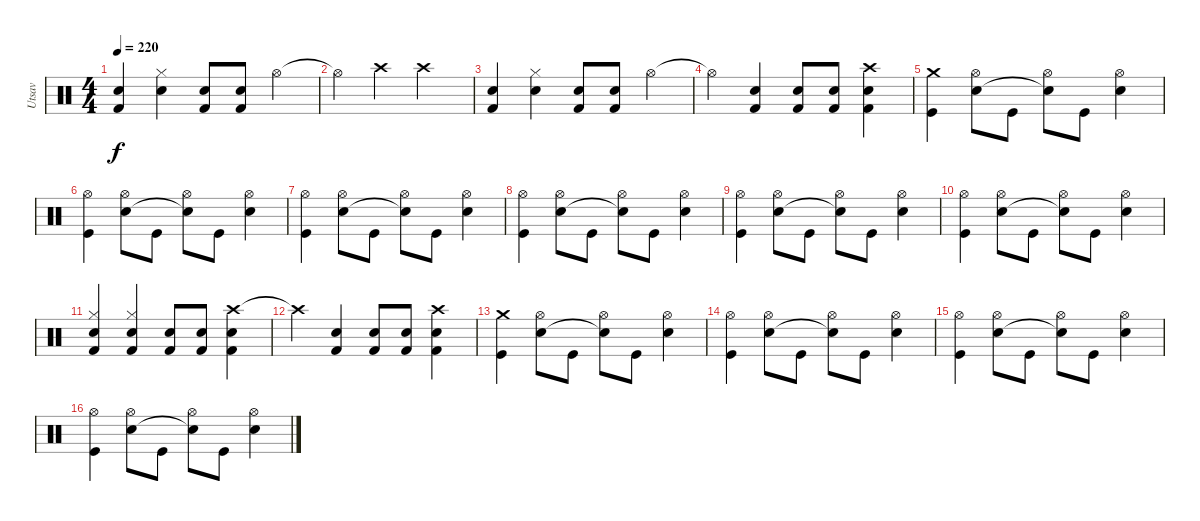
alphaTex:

\track ("Utsav" "Utsav") {instrument percussion}
\staff {score}
\articulation defaults
\ts (4 4)
\tempo 220
\clef neutral
\ks c
("Electric Snare (hit)" "Kick (hit) 2").4{dy f} ("Hi-Hat (closed)" "Snare (hit) 2").4 ("Electric Snare (hit)" "Kick (hit) 2").8 ("Electric Snare (hit)" "Kick (hit) 2").8 "Hi-Hat (open)".4 |
"Hi-Hat (open)"{t}.4 "Crash high (hit)".4 "Crash high (hit)".2 |
("Electric Snare (hit)" "Kick (hit) 2").4 ("Hi-Hat (closed)" "Snare (hit) 2").4 ("Electric Snare (hit)" "Kick (hit) 2").8 ("Electric Snare (hit)" "Kick (hit) 2").8 "Hi-Hat (open)".4 |
"Hi-Hat (open)"{t}.4 ("Snare (hit) 2" "Kick (hit) 2").4 ("Snare (hit) 2" "Kick (hit) 2").8 ("Snare (hit) 2" "Kick (hit) 2").8 ("Crash high (hit)" "Snare (hit) 2" "Kick (hit) 2").4 |
("Crash medium (hit)" "Kick (hit)").4 ("Hi-Hat (open)" "Electric Snare (hit)").8 "Kick (hit)".8 ("Hi-Hat (open)" "Snare (hit)"{t}).8 "Kick (hit)".8 ("Hi-Hat (open)" "Electric Snare (hit)").4 |
("Hi-Hat (open)" "Kick (hit)").4 ("Hi-Hat (open)" "Electric Snare (hit)").8 "Kick (hit)".8 ("Hi-Hat (open)" "Snare (hit)"{t}).8 "Kick (hit)".8 ("Hi-Hat (open)" "Electric Snare (hit)").4 |
("Hi-Hat (open)" "Kick (hit)").4 ("Hi-Hat (open)" "Electric Snare (hit)").8 "Kick (hit)".8 ("Hi-Hat (open)" "Snare (hit)"{t}).8 "Kick (hit)".8 ("Hi-Hat (open)" "Electric Snare (hit)").4 |
("Hi-Hat (open)" "Kick (hit)").4 ("Hi-Hat (open)" "Electric Snare (hit)").8 "Kick (hit)".8 ("Hi-Hat (open)" "Snare (hit)"{t}).8 "Kick (hit)".8 ("Hi-Hat (open)" "Electric Snare (hit)").4 |
("Hi-Hat (open)" "Kick (hit)").4 ("Hi-Hat (open)" "Electric Snare (hit)").8 "Kick (hit)".8 ("Hi-Hat (open)" "Snare (hit)"{t}).8 "Kick (hit)".8 ("Hi-Hat (open)" "Electric Snare (hit)").4 |
("Hi-Hat (open)" "Kick (hit)").4 ("Hi-Hat (open)" "Electric Snare (hit)").8 "Kick (hit)".8 ("Hi-Hat (open)" "Snare (hit)"{t}).8 "Kick (hit)".8 ("Hi-Hat (open)" "Electric Snare (hit)").4 |
("Snare (hit) 2" "Hi-Hat (closed)" "Kick (hit) 2").4 ("Snare (hit) 2" "Hi-Hat (closed)" "Kick (hit) 2").4 ("Snare (hit) 2" "Kick (hit) 2").8 ("Snare (hit) 2" "Kick (hit) 2").8 ("Crash high (hit)" "Snare (hit) 2" "Kick (hit) 2").4 |
"Crash high (hit)"{t}.4 ("Kick (hit) 2" "Snare (hit) 2").4 ("Kick (hit) 2" "Snare (hit) 2").8 ("Kick (hit) 2" "Snare (hit) 2").8 ("Crash high (hit)" "Kick (hit) 2" "Snare (hit) 2").4 |
("Crash medium (hit)" "Kick (hit)").4 ("Hi-Hat (open)" "Electric Snare (hit)").8 "Kick (hit)".8 ("Hi-Hat (open)" "Snare (hit)"{t}).8 "Kick (hit)".8 ("Hi-Hat (open)" "Electric Snare (hit)").4 |
("Hi-Hat (open)" "Kick (hit)").4 ("Hi-Hat (open)" "Electric Snare (hit)").8 "Kick (hit)".8 ("Hi-Hat (open)" "Snare (hit)"{t}).8 "Kick (hit)".8 ("Hi-Hat (open)" "Electric Snare (hit)").4 |
("Hi-Hat (open)" "Kick (hit)").4 ("Hi-Hat (open)" "Electric Snare (hit)").8 "Kick (hit)".8 ("Hi-Hat (open)" "Snare (hit)"{t}).8 "Kick (hit)".8 ("Hi-Hat (open)" "Electric Snare (hit)").4 |
("Hi-Hat (open)" "Kick (hit)").4 ("Hi-Hat (open)" "Electric Snare (hit)").8 "Kick (hit)".8 ("Hi-Hat (open)" "Snare (hit)"{t}).8 "Kick (hit)".8 ("Hi-Hat (open)" "Electric Snare (hit)").4
